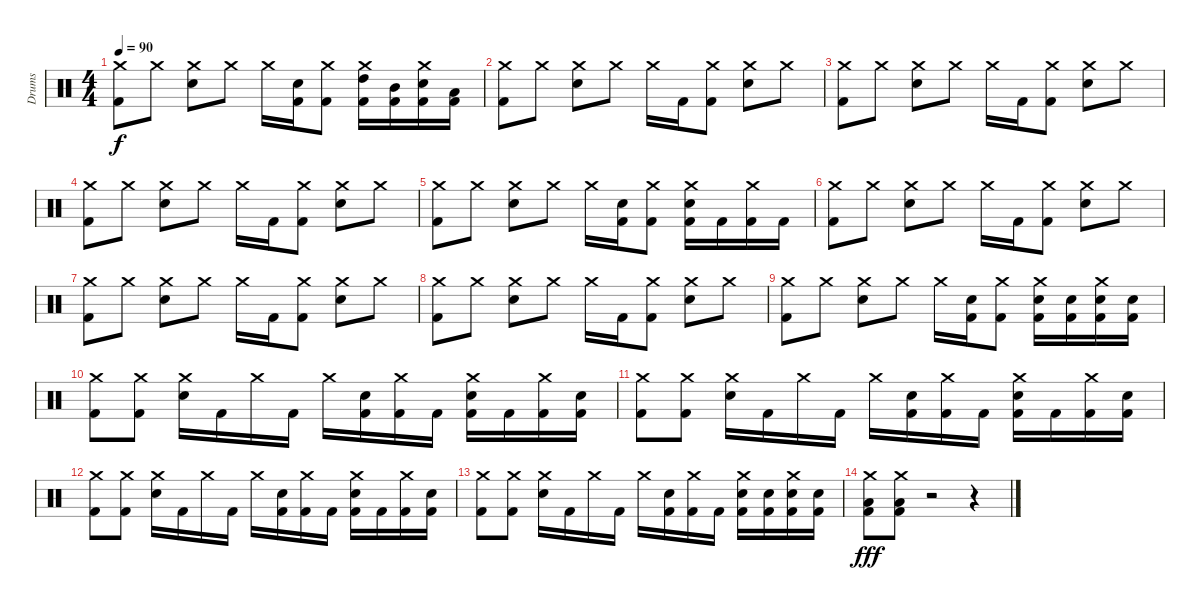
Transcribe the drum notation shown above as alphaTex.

\track ("Drums" "Drums") {instrument percussion}
\staff {score}
\articulation defaults
\ts (4 4)
\tempo 90
\clef neutral
\ks c
("Crash medium (hit)" "Kick (hit) 2").8{dy f} "Crash medium (hit)".8 ("Crash medium (hit)" "Snare (hit) 2").8 "Crash medium (hit)".8 "Crash medium (hit)".16 ("Snare (hit) 2" "Kick (hit) 2").16 ("Crash medium (hit)" "Kick (hit) 2").8 ("Crash medium (hit)" "High Tom (hit)" "Kick (hit) 2").16 ("Mid Tom (hit)" "Kick (hit) 2").16 ("Crash medium (hit)" "Snare (hit) 2" "Kick (hit) 2").16 ("Low Tom (hit)" "Kick (hit) 2").16 |
("Crash medium (hit)" "Kick (hit) 2").8 "Crash medium (hit)".8 ("Crash medium (hit)" "Snare (hit) 2").8 "Crash medium (hit)".8 "Crash medium (hit)".16 "Kick (hit) 2".16 ("Crash medium (hit)" "Kick (hit) 2").8 ("Crash medium (hit)" "Snare (hit) 2").8 "Crash medium (hit)".8 |
("Crash medium (hit)" "Kick (hit) 2").8 "Crash medium (hit)".8 ("Crash medium (hit)" "Snare (hit) 2").8 "Crash medium (hit)".8 "Crash medium (hit)".16 "Kick (hit) 2".16 ("Crash medium (hit)" "Kick (hit) 2").8 ("Crash medium (hit)" "Snare (hit) 2").8 "Crash medium (hit)".8 |
("Crash medium (hit)" "Kick (hit) 2").8 "Crash medium (hit)".8 ("Crash medium (hit)" "Snare (hit) 2").8 "Crash medium (hit)".8 "Crash medium (hit)".16 "Kick (hit) 2".16 ("Crash medium (hit)" "Kick (hit) 2").8 ("Crash medium (hit)" "Snare (hit) 2").8 "Crash medium (hit)".8 |
("Crash medium (hit)" "Kick (hit) 2").8 "Crash medium (hit)".8 ("Crash medium (hit)" "Snare (hit) 2").8 "Crash medium (hit)".8 "Crash medium (hit)".16 ("Snare (hit) 2" "Kick (hit) 2").16 ("Crash medium (hit)" "Kick (hit) 2").8 ("Crash medium (hit)" "Snare (hit) 2" "Kick (hit) 2").16 "Kick (hit) 2".16 ("Crash medium (hit)" "Kick (hit) 2").16 "Kick (hit) 2".16 |
("Crash medium (hit)" "Kick (hit) 2").8 "Crash medium (hit)".8 ("Crash medium (hit)" "Snare (hit) 2").8 "Crash medium (hit)".8 "Crash medium (hit)".16 "Kick (hit) 2".16 ("Crash medium (hit)" "Kick (hit) 2").8 ("Crash medium (hit)" "Snare (hit) 2").8 "Crash medium (hit)".8 |
("Crash medium (hit)" "Kick (hit) 2").8 "Crash medium (hit)".8 ("Crash medium (hit)" "Snare (hit) 2").8 "Crash medium (hit)".8 "Crash medium (hit)".16 "Kick (hit) 2".16 ("Crash medium (hit)" "Kick (hit) 2").8 ("Crash medium (hit)" "Snare (hit) 2").8 "Crash medium (hit)".8 |
("Crash medium (hit)" "Kick (hit) 2").8 "Crash medium (hit)".8 ("Crash medium (hit)" "Snare (hit) 2").8 "Crash medium (hit)".8 "Crash medium (hit)".16 "Kick (hit) 2".16 ("Crash medium (hit)" "Kick (hit) 2").8 ("Crash medium (hit)" "Snare (hit) 2").8 "Crash medium (hit)".8 |
("Crash medium (hit)" "Kick (hit) 2").8 "Crash medium (hit)".8 ("Crash medium (hit)" "Snare (hit) 2").8 "Crash medium (hit)".8 "Crash medium (hit)".16 ("Snare (hit) 2" "Kick (hit) 2").16 ("Crash medium (hit)" "Kick (hit) 2").8 ("Crash medium (hit)" "Snare (hit) 2" "Kick (hit) 2").16 ("Snare (hit) 2" "Kick (hit) 2").16 ("Crash medium (hit)" "Snare (hit) 2" "Kick (hit) 2").16 ("Snare (hit) 2" "Kick (hit) 2").16 |
("Crash medium (hit)" "Kick (hit) 2").8 ("Crash medium (hit)" "Kick (hit) 2").8 ("Crash medium (hit)" "Snare (hit) 2").16 "Kick (hit) 2".16 "Crash medium (hit)".16 "Kick (hit) 2".16 "Crash medium (hit)".16 ("Snare (hit) 2" "Kick (hit) 2").16 ("Crash medium (hit)" "Kick (hit) 2").16 "Kick (hit) 2".16 ("Crash medium (hit)" "Snare (hit) 2" "Kick (hit) 2").16 "Kick (hit) 2".16 ("Crash medium (hit)" "Kick (hit) 2").16 ("Snare (hit) 2" "Kick (hit) 2").16 |
("Crash medium (hit)" "Kick (hit) 2").8 ("Crash medium (hit)" "Kick (hit) 2").8 ("Crash medium (hit)" "Snare (hit) 2").16 "Kick (hit) 2".16 "Crash medium (hit)".16 "Kick (hit) 2".16 "Crash medium (hit)".16 ("Snare (hit) 2" "Kick (hit) 2").16 ("Crash medium (hit)" "Kick (hit) 2").16 "Kick (hit) 2".16 ("Crash medium (hit)" "Snare (hit) 2" "Kick (hit) 2").16 "Kick (hit) 2".16 ("Crash medium (hit)" "Kick (hit) 2").16 ("Snare (hit) 2" "Kick (hit) 2").16 |
("Crash medium (hit)" "Kick (hit) 2").8 ("Crash medium (hit)" "Kick (hit) 2").8 ("Crash medium (hit)" "Snare (hit) 2").16 "Kick (hit) 2".16 "Crash medium (hit)".16 "Kick (hit) 2".16 "Crash medium (hit)".16 ("Snare (hit) 2" "Kick (hit) 2").16 ("Crash medium (hit)" "Kick (hit) 2").16 "Kick (hit) 2".16 ("Crash medium (hit)" "Snare (hit) 2" "Kick (hit) 2").16 "Kick (hit) 2".16 ("Crash medium (hit)" "Kick (hit) 2").16 ("Snare (hit) 2" "Kick (hit) 2").16 |
("Crash medium (hit)" "Kick (hit) 2").8 ("Crash medium (hit)" "Kick (hit) 2").8 ("Crash medium (hit)" "Snare (hit) 2").16 "Kick (hit) 2".16 "Crash medium (hit)".16 "Kick (hit) 2".16 "Crash medium (hit)".16 ("Snare (hit) 2" "Kick (hit) 2").16 ("Crash medium (hit)" "Kick (hit) 2").16 "Kick (hit) 2".16 ("Crash medium (hit)" "Snare (hit) 2" "Kick (hit) 2").16 ("Snare (hit) 2" "Kick (hit) 2").16 ("Crash medium (hit)" "Snare (hit) 2" "Kick (hit) 2").16 ("Snare (hit) 2" "Kick (hit) 2").16 |
("Crash medium (hit)" "Low Tom (hit)" "Kick (hit) 2").8{dy fff} ("Crash medium (hit)" "Low Tom (hit)" "Kick (hit) 2").8 r.2 r.4
